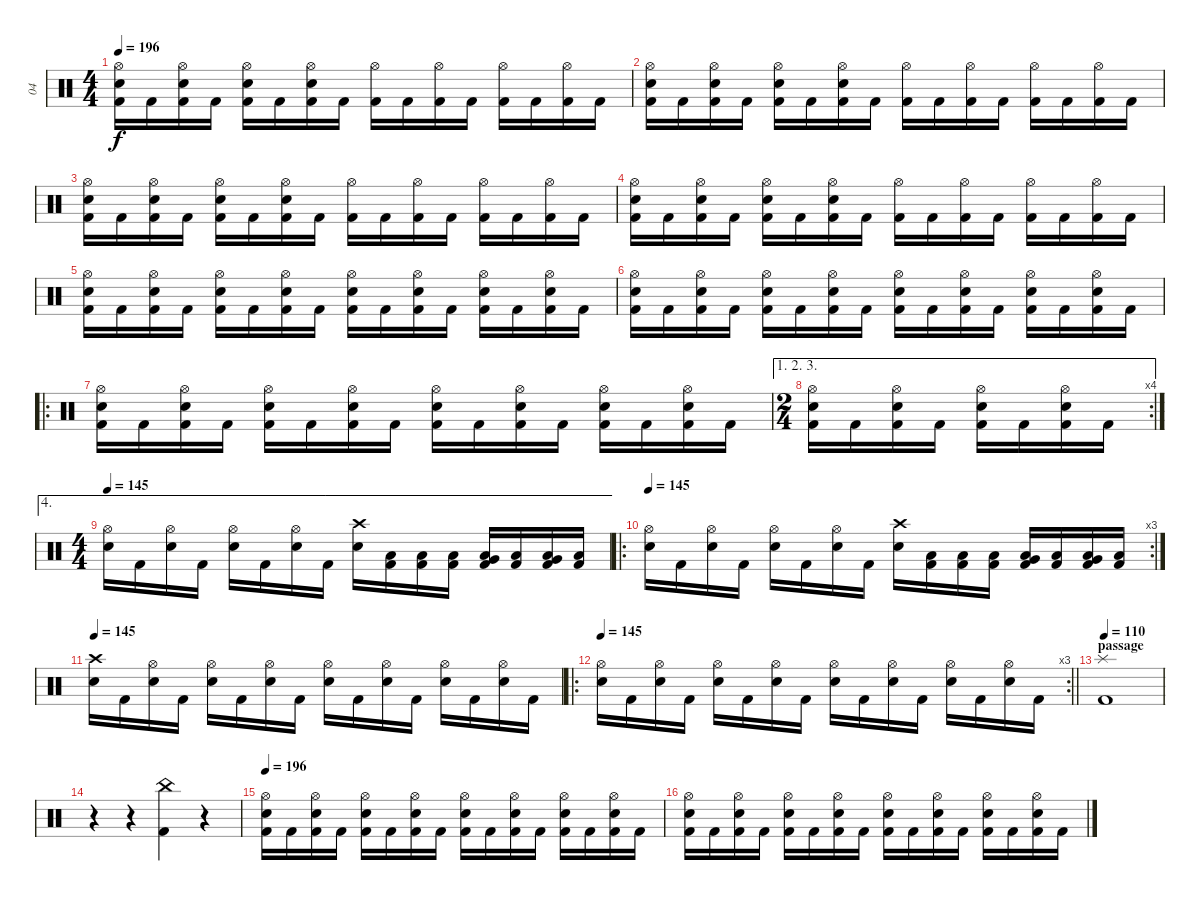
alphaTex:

\track ("04" "04") {instrument percussion}
\staff {score}
\articulation defaults
\ts (4 4)
\tempo 196
\clef neutral
\ks c
("Hi-Hat (open)" "Kick (hit) 2" "Electric Snare (hit)").16{dy f} "Kick (hit) 2".16 ("Hi-Hat (open)" "Kick (hit) 2" "Electric Snare (hit)").16 "Kick (hit) 2".16 ("Hi-Hat (open)" "Kick (hit) 2" "Electric Snare (hit)").16 "Kick (hit) 2".16 ("Hi-Hat (open)" "Kick (hit) 2" "Electric Snare (hit)").16 "Kick (hit) 2".16 ("Hi-Hat (open)" "Kick (hit) 2").16 "Kick (hit) 2".16 ("Hi-Hat (open)" "Kick (hit) 2").16 "Kick (hit) 2".16 ("Hi-Hat (open)" "Kick (hit) 2").16 "Kick (hit) 2".16 ("Hi-Hat (open)" "Kick (hit) 2").16 "Kick (hit) 2".16 |
("Hi-Hat (open)" "Kick (hit) 2" "Electric Snare (hit)").16 "Kick (hit) 2".16 ("Hi-Hat (open)" "Kick (hit) 2" "Electric Snare (hit)").16 "Kick (hit) 2".16 ("Hi-Hat (open)" "Kick (hit) 2" "Electric Snare (hit)").16 "Kick (hit) 2".16 ("Hi-Hat (open)" "Kick (hit) 2" "Electric Snare (hit)").16 "Kick (hit) 2".16 ("Hi-Hat (open)" "Kick (hit) 2").16 "Kick (hit) 2".16 ("Hi-Hat (open)" "Kick (hit) 2").16 "Kick (hit) 2".16 ("Hi-Hat (open)" "Kick (hit) 2").16 "Kick (hit) 2".16 ("Hi-Hat (open)" "Kick (hit) 2").16 "Kick (hit) 2".16 |
("Hi-Hat (open)" "Kick (hit) 2" "Electric Snare (hit)").16 "Kick (hit) 2".16 ("Hi-Hat (open)" "Kick (hit) 2" "Electric Snare (hit)").16 "Kick (hit) 2".16 ("Hi-Hat (open)" "Kick (hit) 2" "Electric Snare (hit)").16 "Kick (hit) 2".16 ("Hi-Hat (open)" "Kick (hit) 2" "Electric Snare (hit)").16 "Kick (hit) 2".16 ("Hi-Hat (open)" "Kick (hit) 2").16 "Kick (hit) 2".16 ("Hi-Hat (open)" "Kick (hit) 2").16 "Kick (hit) 2".16 ("Hi-Hat (open)" "Kick (hit) 2").16 "Kick (hit) 2".16 ("Hi-Hat (open)" "Kick (hit) 2").16 "Kick (hit) 2".16 |
("Hi-Hat (open)" "Kick (hit) 2" "Electric Snare (hit)").16 "Kick (hit) 2".16 ("Hi-Hat (open)" "Kick (hit) 2" "Electric Snare (hit)").16 "Kick (hit) 2".16 ("Hi-Hat (open)" "Kick (hit) 2" "Electric Snare (hit)").16 "Kick (hit) 2".16 ("Hi-Hat (open)" "Kick (hit) 2" "Electric Snare (hit)").16 "Kick (hit) 2".16 ("Hi-Hat (open)" "Kick (hit) 2").16 "Kick (hit) 2".16 ("Hi-Hat (open)" "Kick (hit) 2").16 "Kick (hit) 2".16 ("Hi-Hat (open)" "Kick (hit) 2").16 "Kick (hit) 2".16 ("Hi-Hat (open)" "Kick (hit) 2").16 "Kick (hit) 2".16 |
("Hi-Hat (open)" "Kick (hit) 2" "Electric Snare (hit)").16 "Kick (hit) 2".16 ("Hi-Hat (open)" "Kick (hit) 2" "Electric Snare (hit)").16 "Kick (hit) 2".16 ("Hi-Hat (open)" "Kick (hit) 2" "Electric Snare (hit)").16 "Kick (hit) 2".16 ("Hi-Hat (open)" "Kick (hit) 2" "Electric Snare (hit)").16 "Kick (hit) 2".16 ("Hi-Hat (open)" "Kick (hit) 2" "Electric Snare (hit)").16 "Kick (hit) 2".16 ("Hi-Hat (open)" "Kick (hit) 2" "Electric Snare (hit)").16 "Kick (hit) 2".16 ("Hi-Hat (open)" "Kick (hit) 2" "Electric Snare (hit)").16 "Kick (hit) 2".16 ("Hi-Hat (open)" "Kick (hit) 2" "Electric Snare (hit)").16 "Kick (hit) 2".16 |
("Hi-Hat (open)" "Kick (hit) 2" "Electric Snare (hit)").16 "Kick (hit) 2".16 ("Hi-Hat (open)" "Kick (hit) 2" "Electric Snare (hit)").16 "Kick (hit) 2".16 ("Hi-Hat (open)" "Kick (hit) 2" "Electric Snare (hit)").16 "Kick (hit) 2".16 ("Hi-Hat (open)" "Kick (hit) 2" "Electric Snare (hit)").16 "Kick (hit) 2".16 ("Hi-Hat (open)" "Kick (hit) 2" "Electric Snare (hit)").16 "Kick (hit) 2".16 ("Hi-Hat (open)" "Kick (hit) 2" "Electric Snare (hit)").16 "Kick (hit) 2".16 ("Hi-Hat (open)" "Kick (hit) 2" "Electric Snare (hit)").16 "Kick (hit) 2".16 ("Hi-Hat (open)" "Kick (hit) 2" "Electric Snare (hit)").16 "Kick (hit) 2".16 |
\ro
("Hi-Hat (open)" "Kick (hit) 2" "Electric Snare (hit)").16 "Kick (hit) 2".16 ("Hi-Hat (open)" "Kick (hit) 2" "Electric Snare (hit)").16 "Kick (hit) 2".16 ("Hi-Hat (open)" "Kick (hit) 2" "Electric Snare (hit)").16 "Kick (hit) 2".16 ("Hi-Hat (open)" "Kick (hit) 2" "Electric Snare (hit)").16 "Kick (hit) 2".16 ("Hi-Hat (open)" "Kick (hit) 2" "Electric Snare (hit)").16 "Kick (hit) 2".16 ("Hi-Hat (open)" "Kick (hit) 2" "Electric Snare (hit)").16 "Kick (hit) 2".16 ("Hi-Hat (open)" "Kick (hit) 2" "Electric Snare (hit)").16 "Kick (hit) 2".16 ("Hi-Hat (open)" "Kick (hit) 2" "Electric Snare (hit)").16 "Kick (hit) 2".16 |
\ae (1 2 3)
\rc 4
\ts (2 4)
("Hi-Hat (open)" "Kick (hit) 2" "Electric Snare (hit)").16 "Kick (hit) 2".16 ("Hi-Hat (open)" "Kick (hit) 2" "Electric Snare (hit)").16 "Kick (hit) 2".16 ("Hi-Hat (open)" "Kick (hit) 2" "Electric Snare (hit)").16 "Kick (hit) 2".16 ("Hi-Hat (open)" "Kick (hit) 2" "Electric Snare (hit)").16 "Kick (hit) 2".16 |
\ae 4
\ts (4 4)
\tempo 145
("Hi-Hat (open)" "Electric Snare (hit)").16 "Kick (hit) 2".16 ("Hi-Hat (open)" "Electric Snare (hit)").16 "Kick (hit) 2".16 ("Hi-Hat (open)" "Electric Snare (hit)").16 "Kick (hit) 2".16 ("Hi-Hat (open)" "Electric Snare (hit)").16 "Kick (hit) 2".16 ("Crash high (hit)" "Electric Snare (hit)").16 ("Low Tom (hit)" "Kick (hit) 2").16 ("Low Tom (hit)" "Kick (hit) 2").16 ("Low Tom (hit)" "Kick (hit) 2").16 ("Very Low Tom (hit)" "Low Tom (hit)" "Kick (hit) 2").16 ("Low Tom (hit)" "Kick (hit) 2").16 ("Very Low Tom (hit)" "Low Tom (hit)" "Kick (hit) 2").16 ("Low Tom (hit)" "Kick (hit) 2").16 |
\ro
\rc 3
\tempo 145
("Hi-Hat (open)" "Electric Snare (hit)").16 "Kick (hit) 2".16 ("Hi-Hat (open)" "Electric Snare (hit)").16 "Kick (hit) 2".16 ("Hi-Hat (open)" "Electric Snare (hit)").16 "Kick (hit) 2".16 ("Hi-Hat (open)" "Electric Snare (hit)").16 "Kick (hit) 2".16 ("Crash high (hit)" "Electric Snare (hit)").16 ("Low Tom (hit)" "Kick (hit) 2").16 ("Low Tom (hit)" "Kick (hit) 2").16 ("Low Tom (hit)" "Kick (hit) 2").16 ("Very Low Tom (hit)" "Low Tom (hit)" "Kick (hit) 2").16 ("Low Tom (hit)" "Kick (hit) 2").16 ("Very Low Tom (hit)" "Low Tom (hit)" "Kick (hit) 2").16 ("Low Tom (hit)" "Kick (hit) 2").16 |
\tempo 145
("Crash high (hit)" "Electric Snare (hit)").16 "Kick (hit) 2".16 ("Hi-Hat (open)" "Electric Snare (hit)").16 "Kick (hit) 2".16 ("Hi-Hat (open)" "Electric Snare (hit)").16 "Kick (hit) 2".16 ("Hi-Hat (open)" "Electric Snare (hit)").16 "Kick (hit) 2".16 ("Hi-Hat (open)" "Electric Snare (hit)").16 "Kick (hit) 2".16 ("Hi-Hat (open)" "Electric Snare (hit)").16 "Kick (hit) 2".16 ("Hi-Hat (open)" "Electric Snare (hit)").16 "Kick (hit) 2".16 ("Hi-Hat (open)" "Electric Snare (hit)").16 "Kick (hit) 2".16 |
\ro
\rc 3
\tempo 145
\barLineRight lightlight
("Hi-Hat (open)" "Electric Snare (hit)").16 "Kick (hit) 2".16 ("Hi-Hat (open)" "Electric Snare (hit)").16 "Kick (hit) 2".16 ("Hi-Hat (open)" "Electric Snare (hit)").16 "Kick (hit) 2".16 ("Hi-Hat (open)" "Electric Snare (hit)").16 "Kick (hit) 2".16 ("Hi-Hat (open)" "Electric Snare (hit)").16 "Kick (hit) 2".16 ("Hi-Hat (open)" "Electric Snare (hit)").16 "Kick (hit) 2".16 ("Hi-Hat (open)" "Electric Snare (hit)").16 "Kick (hit) 2".16 ("Hi-Hat (open)" "Electric Snare (hit)").16 "Kick (hit) 2".16 |
\section ("" "passage")
\tempo 110
("Splash (hit)" "Kick (hit) 2").1 |
r.4 r.4 ("China (hit)" "Kick (hit) 2").4 r.4 |
\tempo 196
("Hi-Hat (open)" "Kick (hit) 2" "Electric Snare (hit)").16 "Kick (hit) 2".16 ("Hi-Hat (open)" "Kick (hit) 2" "Electric Snare (hit)").16 "Kick (hit) 2".16 ("Hi-Hat (open)" "Kick (hit) 2" "Electric Snare (hit)").16 "Kick (hit) 2".16 ("Hi-Hat (open)" "Kick (hit) 2" "Electric Snare (hit)").16 "Kick (hit) 2".16 ("Hi-Hat (open)" "Kick (hit) 2" "Electric Snare (hit)").16 "Kick (hit) 2".16 ("Hi-Hat (open)" "Kick (hit) 2" "Electric Snare (hit)").16 "Kick (hit) 2".16 ("Hi-Hat (open)" "Kick (hit) 2" "Electric Snare (hit)").16 "Kick (hit) 2".16 ("Hi-Hat (open)" "Kick (hit) 2" "Electric Snare (hit)").16 "Kick (hit) 2".16 |
("Hi-Hat (open)" "Kick (hit) 2" "Electric Snare (hit)").16 "Kick (hit) 2".16 ("Hi-Hat (open)" "Kick (hit) 2" "Electric Snare (hit)").16 "Kick (hit) 2".16 ("Hi-Hat (open)" "Kick (hit) 2" "Electric Snare (hit)").16 "Kick (hit) 2".16 ("Hi-Hat (open)" "Kick (hit) 2" "Electric Snare (hit)").16 "Kick (hit) 2".16 ("Hi-Hat (open)" "Kick (hit) 2" "Electric Snare (hit)").16 "Kick (hit) 2".16 ("Hi-Hat (open)" "Kick (hit) 2" "Electric Snare (hit)").16 "Kick (hit) 2".16 ("Hi-Hat (open)" "Kick (hit) 2" "Electric Snare (hit)").16 "Kick (hit) 2".16 ("Hi-Hat (open)" "Kick (hit) 2" "Electric Snare (hit)").16 "Kick (hit) 2".16
